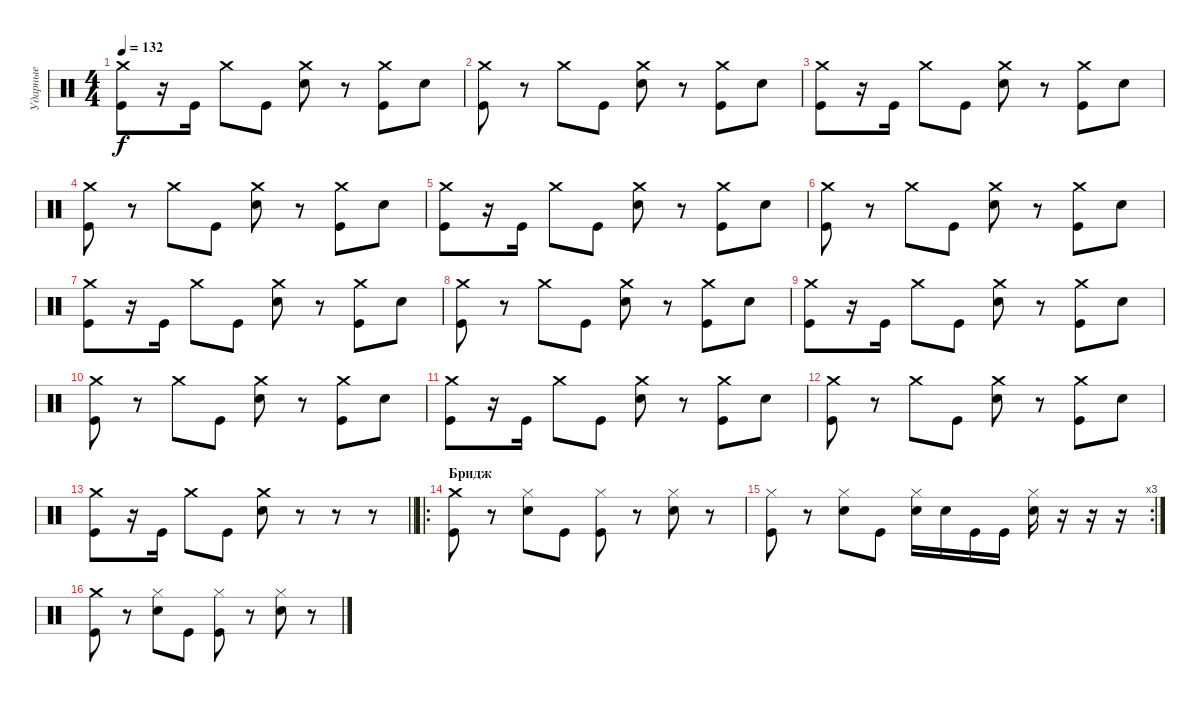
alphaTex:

\track ("Ударные" "Ударные") {instrument percussion}
\staff {score}
\articulation defaults
\ts (4 4)
\tempo 132
\clef neutral
\ks c
("Crash medium (hit)" "Kick (hit)").8{dy f} r.16 "Kick (hit)".16 "Crash medium (hit)".8 "Kick (hit)".8 ("Crash medium (hit)" "Electric Snare (hit)").8 r.8 ("Crash medium (hit)" "Kick (hit)").8 "Electric Snare (hit)".8 |
("Crash medium (hit)" "Kick (hit)").8 r.8 "Crash medium (hit)".8 "Kick (hit)".8 ("Crash medium (hit)" "Electric Snare (hit)").8 r.8 ("Crash medium (hit)" "Kick (hit)").8 "Electric Snare (hit)".8 |
("Crash medium (hit)" "Kick (hit)").8 r.16 "Kick (hit)".16 "Crash medium (hit)".8 "Kick (hit)".8 ("Crash medium (hit)" "Electric Snare (hit)").8 r.8 ("Crash medium (hit)" "Kick (hit)").8 "Electric Snare (hit)".8 |
("Crash medium (hit)" "Kick (hit)").8 r.8 "Crash medium (hit)".8 "Kick (hit)".8 ("Crash medium (hit)" "Electric Snare (hit)").8 r.8 ("Crash medium (hit)" "Kick (hit)").8 "Electric Snare (hit)".8 |
("Crash medium (hit)" "Kick (hit)").8 r.16 "Kick (hit)".16 "Crash medium (hit)".8 "Kick (hit)".8 ("Crash medium (hit)" "Electric Snare (hit)").8 r.8 ("Crash medium (hit)" "Kick (hit)").8 "Electric Snare (hit)".8 |
("Crash medium (hit)" "Kick (hit)").8 r.8 "Crash medium (hit)".8 "Kick (hit)".8 ("Crash medium (hit)" "Electric Snare (hit)").8 r.8 ("Crash medium (hit)" "Kick (hit)").8 "Electric Snare (hit)".8 |
("Crash medium (hit)" "Kick (hit)").8 r.16 "Kick (hit)".16 "Crash medium (hit)".8 "Kick (hit)".8 ("Crash medium (hit)" "Electric Snare (hit)").8 r.8 ("Crash medium (hit)" "Kick (hit)").8 "Electric Snare (hit)".8 |
("Crash medium (hit)" "Kick (hit)").8 r.8 "Crash medium (hit)".8 "Kick (hit)".8 ("Crash medium (hit)" "Electric Snare (hit)").8 r.8 ("Crash medium (hit)" "Kick (hit)").8 "Electric Snare (hit)".8 |
("Crash medium (hit)" "Kick (hit)").8 r.16 "Kick (hit)".16 "Crash medium (hit)".8 "Kick (hit)".8 ("Crash medium (hit)" "Electric Snare (hit)").8 r.8 ("Crash medium (hit)" "Kick (hit)").8 "Electric Snare (hit)".8 |
("Crash medium (hit)" "Kick (hit)").8 r.8 "Crash medium (hit)".8 "Kick (hit)".8 ("Crash medium (hit)" "Electric Snare (hit)").8 r.8 ("Crash medium (hit)" "Kick (hit)").8 "Electric Snare (hit)".8 |
("Crash medium (hit)" "Kick (hit)").8 r.16 "Kick (hit)".16 "Crash medium (hit)".8 "Kick (hit)".8 ("Crash medium (hit)" "Electric Snare (hit)").8 r.8 ("Crash medium (hit)" "Kick (hit)").8 "Electric Snare (hit)".8 |
("Crash medium (hit)" "Kick (hit)").8 r.8 "Crash medium (hit)".8 "Kick (hit)".8 ("Crash medium (hit)" "Electric Snare (hit)").8 r.8 ("Crash medium (hit)" "Kick (hit)").8 "Electric Snare (hit)".8 |
\barLineRight lightlight
("Crash medium (hit)" "Kick (hit)").8 r.16 "Kick (hit)".16 "Crash medium (hit)".8 "Kick (hit)".8 ("Crash medium (hit)" "Electric Snare (hit)").8 r.8 r.8 r.8 |
\ro
\section ("" "Бридж")
("Crash medium (hit)" "Kick (hit)").8 r.8 ("Hi-Hat (closed)" "Electric Snare (hit)").8 "Kick (hit)".8 ("Hi-Hat (closed)" "Kick (hit)").8 r.8 ("Hi-Hat (closed)" "Electric Snare (hit)").8 r.8 |
\rc 3
("Hi-Hat (closed)" "Kick (hit)").8 r.8 ("Hi-Hat (closed)" "Electric Snare (hit)").8 "Kick (hit)".8 ("Hi-Hat (closed)" "Electric Snare (hit)").16 "Electric Snare (hit)".16 "Kick (hit)".16 "Kick (hit)".16 ("Hi-Hat (closed)" "Electric Snare (hit)").16 r.16 r.16 r.16 |
("Crash medium (hit)" "Kick (hit)").8 r.8 ("Hi-Hat (closed)" "Electric Snare (hit)").8 "Kick (hit)".8 ("Hi-Hat (closed)" "Kick (hit)").8 r.8 ("Hi-Hat (closed)" "Electric Snare (hit)").8 r.8
